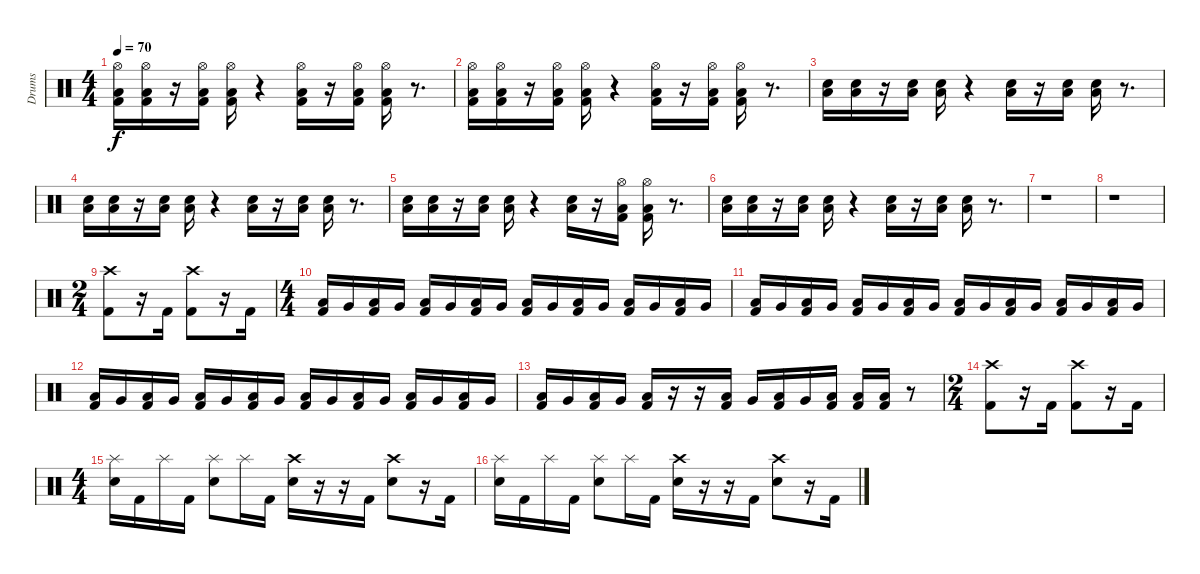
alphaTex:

\track ("Drums" "Drums") {instrument percussion}
\staff {score}
\articulation defaults
\ts (4 4)
\tempo 70
\clef neutral
\ks c
("Hi-Hat (open)" "Low Floor Tom (hit)" "Kick (hit) 2").16{dy f} ("Hi-Hat (open)" "Low Floor Tom (hit)" "Kick (hit) 2").16 r.16 ("Hi-Hat (open)" "Low Floor Tom (hit)" "Kick (hit) 2").16 ("Hi-Hat (open)" "Low Floor Tom (hit)" "Kick (hit) 2").16 r.4 ("Hi-Hat (open)" "Low Floor Tom (hit)" "Kick (hit) 2").16 r.16 ("Hi-Hat (open)" "Low Floor Tom (hit)" "Kick (hit) 2").16 ("Hi-Hat (open)" "Low Floor Tom (hit)" "Kick (hit) 2").16 r.8{d} |
("Hi-Hat (open)" "Low Floor Tom (hit)" "Kick (hit) 2").16 ("Hi-Hat (open)" "Low Floor Tom (hit)" "Kick (hit) 2").16 r.16 ("Hi-Hat (open)" "Low Floor Tom (hit)" "Kick (hit) 2").16 ("Hi-Hat (open)" "Low Floor Tom (hit)" "Kick (hit) 2").16 r.4 ("Hi-Hat (open)" "Low Floor Tom (hit)" "Kick (hit) 2").16 r.16 ("Hi-Hat (open)" "Low Floor Tom (hit)" "Kick (hit) 2").16 ("Hi-Hat (open)" "Low Floor Tom (hit)" "Kick (hit) 2").16 r.8{d} |
("Low Floor Tom (hit)" "Snare (hit) 2").16 ("Low Floor Tom (hit)" "Snare (hit) 2").16 r.16 ("Low Floor Tom (hit)" "Snare (hit) 2").16 ("Low Floor Tom (hit)" "Snare (hit) 2").16 r.4 ("Low Floor Tom (hit)" "Snare (hit) 2").16 r.16 ("Low Floor Tom (hit)" "Snare (hit) 2").16 ("Low Floor Tom (hit)" "Snare (hit) 2").16 r.8{d} |
("Low Floor Tom (hit)" "Snare (hit) 2").16 ("Low Floor Tom (hit)" "Snare (hit) 2").16 r.16 ("Low Floor Tom (hit)" "Snare (hit) 2").16 ("Low Floor Tom (hit)" "Snare (hit) 2").16 r.4 ("Low Floor Tom (hit)" "Snare (hit) 2").16 r.16 ("Low Floor Tom (hit)" "Snare (hit) 2").16 ("Low Floor Tom (hit)" "Snare (hit) 2").16 r.8{d} |
("Low Floor Tom (hit)" "Snare (hit) 2").16 ("Low Floor Tom (hit)" "Snare (hit) 2").16 r.16 ("Low Floor Tom (hit)" "Snare (hit) 2").16 ("Low Floor Tom (hit)" "Snare (hit) 2").16 r.4 ("Low Floor Tom (hit)" "Snare (hit) 2").16 r.16 ("Hi-Hat (open)" "Low Floor Tom (hit)" "Kick (hit) 2").16 ("Hi-Hat (open)" "Low Floor Tom (hit)" "Kick (hit) 2").16 r.8{d} |
("Low Floor Tom (hit)" "Snare (hit) 2").16 ("Low Floor Tom (hit)" "Snare (hit) 2").16 r.16 ("Low Floor Tom (hit)" "Snare (hit) 2").16 ("Low Floor Tom (hit)" "Snare (hit) 2").16 r.4 ("Low Floor Tom (hit)" "Snare (hit) 2").16 r.16 ("Low Floor Tom (hit)" "Snare (hit) 2").16 ("Low Floor Tom (hit)" "Snare (hit) 2").16 r.8{d} |
r.1 |
r.1 |
\ts (2 4)
("Crash high (hit)" "Kick (hit) 2").8 r.16 "Kick (hit) 2".16 ("Crash high (hit)" "Kick (hit) 2").8 r.16 "Kick (hit) 2".16 |
\ts (4 4)
("Kick (hit) 2" "Low Floor Tom (hit)").16 "Very Low Tom (hit)".16 ("Kick (hit) 2" "Low Floor Tom (hit)").16 "Very Low Tom (hit)".16 ("Kick (hit) 2" "Low Floor Tom (hit)").16 "Very Low Tom (hit)".16 ("Kick (hit) 2" "Low Floor Tom (hit)").16 "Very Low Tom (hit)".16 ("Kick (hit) 2" "Low Floor Tom (hit)").16 "Very Low Tom (hit)".16 ("Kick (hit) 2" "Low Floor Tom (hit)").16 "Very Low Tom (hit)".16 ("Kick (hit) 2" "Low Floor Tom (hit)").16 "Very Low Tom (hit)".16 ("Kick (hit) 2" "Low Floor Tom (hit)").16 "Very Low Tom (hit)".16 |
("Kick (hit) 2" "Low Floor Tom (hit)").16 "Very Low Tom (hit)".16 ("Kick (hit) 2" "Low Floor Tom (hit)").16 "Very Low Tom (hit)".16 ("Kick (hit) 2" "Low Floor Tom (hit)").16 "Very Low Tom (hit)".16 ("Kick (hit) 2" "Low Floor Tom (hit)").16 "Very Low Tom (hit)".16 ("Kick (hit) 2" "Low Floor Tom (hit)").16 "Very Low Tom (hit)".16 ("Kick (hit) 2" "Low Floor Tom (hit)").16 "Very Low Tom (hit)".16 ("Kick (hit) 2" "Low Floor Tom (hit)").16 "Very Low Tom (hit)".16 ("Kick (hit) 2" "Low Floor Tom (hit)").16 "Very Low Tom (hit)".16 |
("Kick (hit) 2" "Low Floor Tom (hit)").16 "Very Low Tom (hit)".16 ("Kick (hit) 2" "Low Floor Tom (hit)").16 "Very Low Tom (hit)".16 ("Kick (hit) 2" "Low Floor Tom (hit)").16 "Very Low Tom (hit)".16 ("Kick (hit) 2" "Low Floor Tom (hit)").16 "Very Low Tom (hit)".16 ("Kick (hit) 2" "Low Floor Tom (hit)").16 "Very Low Tom (hit)".16 ("Kick (hit) 2" "Low Floor Tom (hit)").16 "Very Low Tom (hit)".16 ("Kick (hit) 2" "Low Floor Tom (hit)").16 "Very Low Tom (hit)".16 ("Kick (hit) 2" "Low Floor Tom (hit)").16 "Very Low Tom (hit)".16 |
("Kick (hit) 2" "Low Floor Tom (hit)").16 "Very Low Tom (hit)".16 ("Kick (hit) 2" "Low Floor Tom (hit)").16 "Very Low Tom (hit)".16 ("Kick (hit) 2" "Low Floor Tom (hit)").16 r.16 r.16 ("Kick (hit) 2" "Low Floor Tom (hit)").16 "Very Low Tom (hit)".16 ("Kick (hit) 2" "Low Floor Tom (hit)").16 "Very Low Tom (hit)".16 ("Kick (hit) 2" "Low Floor Tom (hit)").16 ("Kick (hit) 2" "Low Floor Tom (hit)").16 ("Kick (hit) 2" "Low Floor Tom (hit)").16 r.8 |
\ts (2 4)
("Crash high (hit)" "Kick (hit) 2").8 r.16 "Kick (hit) 2".16 ("Crash high (hit)" "Kick (hit) 2").8 r.16 "Kick (hit) 2".16 |
\ts (4 4)
("Splash (hit)" "Snare (hit) 2").16 "Kick (hit) 2".16 "Splash (hit)".16 "Kick (hit) 2".16 ("Splash (hit)" "Snare (hit) 2").8 "Splash (hit)".16 "Kick (hit) 2".16 ("Crash high (hit)" "Snare (hit) 2").16 r.16 r.16 "Kick (hit) 2".16 ("Crash high (hit)" "Snare (hit) 2").8 r.16 "Kick (hit) 2".16 |
("Splash (hit)" "Snare (hit) 2").16 "Kick (hit) 2".16 "Splash (hit)".16 "Kick (hit) 2".16 ("Splash (hit)" "Snare (hit) 2").8 "Splash (hit)".16 "Kick (hit) 2".16 ("Crash high (hit)" "Snare (hit) 2").16 r.16 r.16 "Kick (hit) 2".16 ("Crash high (hit)" "Snare (hit) 2").8 r.16 "Kick (hit) 2".16
